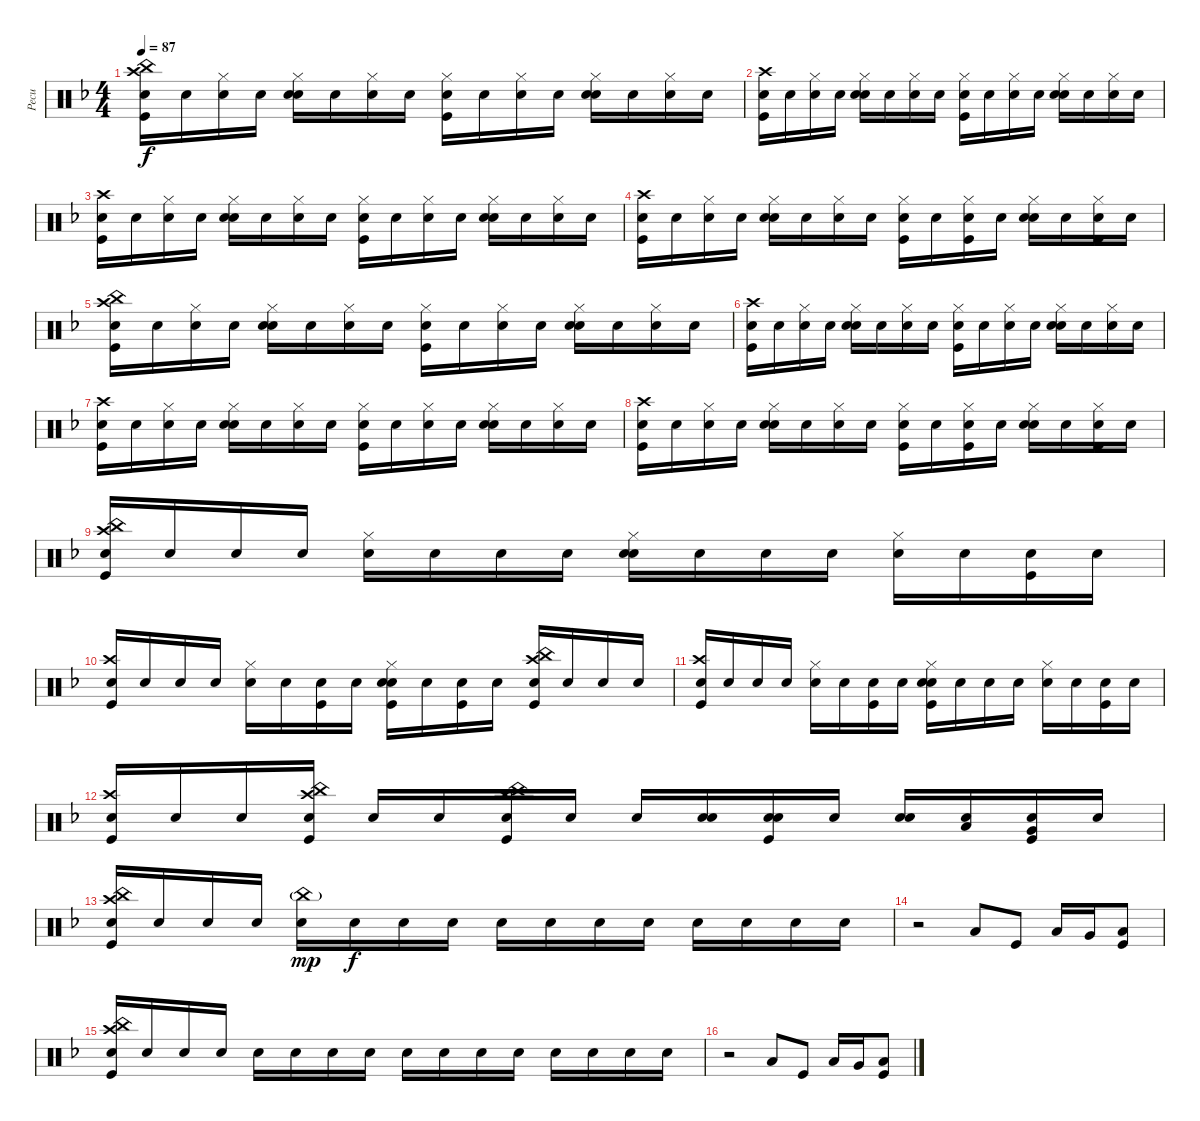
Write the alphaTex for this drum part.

\track ("Pecu" "Pecu") {instrument percussion}
\staff {score}
\articulation defaults
\ts (4 4)
\tempo 87
\clef neutral
\ks dminor
("Snare (hit)" "Crash high (hit)" "China (hit)" "Kick (hit)").16{dy f} "Snare (hit)".16 ("Snare (hit)" "Hi-Hat (closed)").16 "Snare (hit)".16 ("Snare (hit)" "Hi-Hat (closed)" "Snare (hit) 2").16 "Snare (hit)".16 ("Snare (hit)" "Hi-Hat (closed)").16 "Snare (hit)".16 ("Snare (hit)" "Hi-Hat (closed)" "Kick (hit)").16 "Snare (hit)".16 ("Snare (hit)" "Hi-Hat (closed)").16 "Snare (hit)".16 ("Snare (hit)" "Hi-Hat (closed)" "Snare (hit) 2").16 "Snare (hit)".16 ("Snare (hit)" "Hi-Hat (closed)").16 "Snare (hit)".16 |
("Snare (hit)" "Crash high (hit)" "Kick (hit)").16 "Snare (hit)".16 ("Snare (hit)" "Hi-Hat (closed)").16 "Snare (hit)".16 ("Snare (hit)" "Hi-Hat (closed)" "Snare (hit) 2").16 "Snare (hit)".16 ("Snare (hit)" "Hi-Hat (closed)").16 "Snare (hit)".16 ("Snare (hit)" "Hi-Hat (closed)" "Kick (hit)").16 "Snare (hit)".16 ("Snare (hit)" "Hi-Hat (closed)").16 "Snare (hit)".16 ("Snare (hit)" "Hi-Hat (closed)" "Snare (hit) 2").16 "Snare (hit)".16 ("Snare (hit)" "Hi-Hat (closed)").16 "Snare (hit)".16 |
("Snare (hit)" "Crash high (hit)" "Kick (hit)").16 "Snare (hit)".16 ("Snare (hit)" "Hi-Hat (closed)").16 "Snare (hit)".16 ("Snare (hit)" "Hi-Hat (closed)" "Snare (hit) 2").16 "Snare (hit)".16 ("Snare (hit)" "Hi-Hat (closed)").16 "Snare (hit)".16 ("Snare (hit)" "Hi-Hat (closed)" "Kick (hit)").16 "Snare (hit)".16 ("Snare (hit)" "Hi-Hat (closed)").16 "Snare (hit)".16 ("Snare (hit)" "Hi-Hat (closed)" "Snare (hit) 2").16 "Snare (hit)".16 ("Snare (hit)" "Hi-Hat (closed)").16 "Snare (hit)".16 |
("Snare (hit)" "Crash high (hit)" "Kick (hit)").16 "Snare (hit)".16 ("Snare (hit)" "Hi-Hat (closed)").16 "Snare (hit)".16 ("Snare (hit)" "Hi-Hat (closed)" "Snare (hit) 2").16 "Snare (hit)".16 ("Snare (hit)" "Hi-Hat (closed)").16 "Snare (hit)".16 ("Snare (hit)" "Hi-Hat (closed)" "Kick (hit)").16 "Snare (hit)".16 ("Snare (hit)" "Hi-Hat (closed)" "Kick (hit)").16 "Snare (hit)".16 ("Snare (hit)" "Hi-Hat (closed)" "Snare (hit) 2").16 "Snare (hit)".16 ("Snare (hit)" "Hi-Hat (closed)" "Kick (hit)").16 "Snare (hit)".16 |
("Snare (hit)" "Crash high (hit)" "China (hit)" "Kick (hit)").16 "Snare (hit)".16 ("Snare (hit)" "Hi-Hat (closed)").16 "Snare (hit)".16 ("Snare (hit)" "Hi-Hat (closed)" "Snare (hit) 2").16 "Snare (hit)".16 ("Snare (hit)" "Hi-Hat (closed)").16 "Snare (hit)".16 ("Snare (hit)" "Hi-Hat (closed)" "Kick (hit)").16 "Snare (hit)".16 ("Snare (hit)" "Hi-Hat (closed)").16 "Snare (hit)".16 ("Snare (hit)" "Hi-Hat (closed)" "Snare (hit) 2").16 "Snare (hit)".16 ("Snare (hit)" "Hi-Hat (closed)").16 "Snare (hit)".16 |
("Snare (hit)" "Crash high (hit)" "Kick (hit)").16 "Snare (hit)".16 ("Snare (hit)" "Hi-Hat (closed)").16 "Snare (hit)".16 ("Snare (hit)" "Hi-Hat (closed)" "Snare (hit) 2").16 "Snare (hit)".16 ("Snare (hit)" "Hi-Hat (closed)").16 "Snare (hit)".16 ("Snare (hit)" "Hi-Hat (closed)" "Kick (hit)").16 "Snare (hit)".16 ("Snare (hit)" "Hi-Hat (closed)").16 "Snare (hit)".16 ("Snare (hit)" "Hi-Hat (closed)" "Snare (hit) 2").16 "Snare (hit)".16 ("Snare (hit)" "Hi-Hat (closed)").16 "Snare (hit)".16 |
("Snare (hit)" "Crash high (hit)" "Kick (hit)").16 "Snare (hit)".16 ("Snare (hit)" "Hi-Hat (closed)").16 "Snare (hit)".16 ("Snare (hit)" "Hi-Hat (closed)" "Snare (hit) 2").16 "Snare (hit)".16 ("Snare (hit)" "Hi-Hat (closed)").16 "Snare (hit)".16 ("Snare (hit)" "Hi-Hat (closed)" "Kick (hit)").16 "Snare (hit)".16 ("Snare (hit)" "Hi-Hat (closed)").16 "Snare (hit)".16 ("Snare (hit)" "Hi-Hat (closed)" "Snare (hit) 2").16 "Snare (hit)".16 ("Snare (hit)" "Hi-Hat (closed)").16 "Snare (hit)".16 |
("Snare (hit)" "Crash high (hit)" "Kick (hit)").16 "Snare (hit)".16 ("Snare (hit)" "Hi-Hat (closed)").16 "Snare (hit)".16 ("Snare (hit)" "Hi-Hat (closed)" "Snare (hit) 2").16 "Snare (hit)".16 ("Snare (hit)" "Hi-Hat (closed)").16 "Snare (hit)".16 ("Snare (hit)" "Hi-Hat (closed)" "Kick (hit)").16 "Snare (hit)".16 ("Snare (hit)" "Hi-Hat (closed)" "Kick (hit)").16 "Snare (hit)".16 ("Snare (hit)" "Hi-Hat (closed)" "Snare (hit) 2").16 "Snare (hit)".16 ("Snare (hit)" "Hi-Hat (closed)" "Kick (hit)").16 "Snare (hit)".16 |
("Snare (hit)" "Crash high (hit)" "China (hit)" "Kick (hit)").16 "Snare (hit)".16 "Snare (hit)".16 "Snare (hit)".16 ("Snare (hit)" "Hi-Hat (closed)").16 "Snare (hit)".16 "Snare (hit)".16 "Snare (hit)".16 ("Snare (hit)" "Hi-Hat (closed)" "Snare (hit) 2").16 "Snare (hit)".16 "Snare (hit)".16 "Snare (hit)".16 ("Snare (hit)" "Hi-Hat (closed)").16 "Snare (hit)".16 ("Snare (hit)" "Kick (hit)").16 "Snare (hit)".16 |
("Snare (hit)" "Crash high (hit)" "Kick (hit)").16 "Snare (hit)".16 "Snare (hit)".16 "Snare (hit)".16 ("Snare (hit)" "Hi-Hat (closed)").16 "Snare (hit)".16 ("Snare (hit)" "Kick (hit)").16 "Snare (hit)".16 ("Snare (hit)" "Hi-Hat (closed)" "Snare (hit) 2" "Kick (hit)").16 "Snare (hit)".16 ("Snare (hit)" "Kick (hit)").16 "Snare (hit)".16 ("Snare (hit)" "Crash high (hit)" "China (hit)" "Kick (hit)").16 "Snare (hit)".16 "Snare (hit)".16 "Snare (hit)".16 |
("Snare (hit)" "Crash high (hit)" "Kick (hit)").16 "Snare (hit)".16 "Snare (hit)".16 "Snare (hit)".16 ("Snare (hit)" "Hi-Hat (closed)").16 "Snare (hit)".16 ("Snare (hit)" "Kick (hit)").16 "Snare (hit)".16 ("Snare (hit)" "Hi-Hat (closed)" "Snare (hit) 2" "Kick (hit)").16 "Snare (hit)".16 "Snare (hit)".16 "Snare (hit)".16 ("Snare (hit)" "Hi-Hat (closed)").16 "Snare (hit)".16 ("Snare (hit)" "Kick (hit)").16 "Snare (hit)".16 |
("Snare (hit)" "Crash high (hit)" "Kick (hit)").16 "Snare (hit)".16 "Snare (hit)".16 ("Snare (hit)" "Crash high (hit)" "China (hit)" "Kick (hit)").16 "Snare (hit)".16 "Snare (hit)".16 ("Snare (hit)" "Crash high (hit)" "China (hit)" "Kick (hit)").16 "Snare (hit)".16 "Snare (hit)".16 ("Snare (hit)" "Snare (hit) 2").16 ("Snare (hit)" "Snare (hit) 2" "Kick (hit)").16 "Snare (hit)".16 ("Snare (hit)" "Snare (hit) 2").16 ("Snare (hit)" "Low Tom (hit)").16 ("Snare (hit)" "Very Low Tom (hit)" "Kick (hit)").16 "Snare (hit)".16 |
("Snare (hit)" "Crash high (hit)" "China (hit)" "Kick (hit)").16 "Snare (hit)".16 "Snare (hit)".16 "Snare (hit)".16 ("Snare (hit)" "China (hit)"{g}).16{dy mp} "Snare (hit)".16{dy f} "Snare (hit)".16 "Snare (hit)".16 "Snare (hit)".16 "Snare (hit)".16 "Snare (hit)".16 "Snare (hit)".16 "Snare (hit)".16 "Snare (hit)".16 "Snare (hit)".16 "Snare (hit)".16 |
r.2 "Low Tom (hit)".8 "Kick (hit)".8 "Low Tom (hit)".16 "Very Low Tom (hit)".16 ("Low Floor Tom (hit)" "Kick (hit)").8 |
("Snare (hit)" "Crash high (hit)" "China (hit)" "Kick (hit)").16 "Snare (hit)".16 "Snare (hit)".16 "Snare (hit)".16 "Snare (hit)".16 "Snare (hit)".16 "Snare (hit)".16 "Snare (hit)".16 "Snare (hit)".16 "Snare (hit)".16 "Snare (hit)".16 "Snare (hit)".16 "Snare (hit)".16 "Snare (hit)".16 "Snare (hit)".16 "Snare (hit)".16 |
r.2 "Low Tom (hit)".8 "Kick (hit)".8 "Low Tom (hit)".16 "Very Low Tom (hit)".16 ("Low Floor Tom (hit)" "Kick (hit)").8
